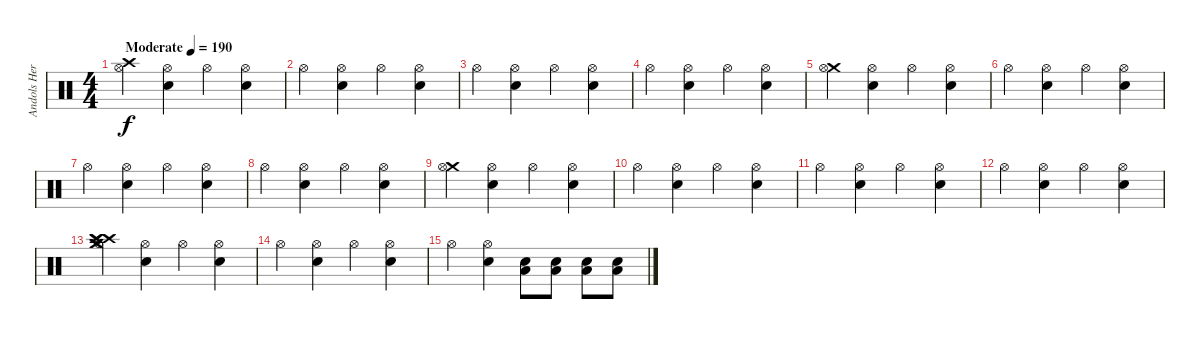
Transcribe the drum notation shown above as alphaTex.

\track ("Andols Herrick" "Andols Her") {instrument percussion}
\staff {score}
\articulation defaults
\ts (4 4)
\tempo (190 "Moderate")
\clef neutral
\ks c
("Crash high (hit)" "Hi-Hat (open)").4{dy f} ("Hi-Hat (open)" "Electric Snare (hit)").4 "Hi-Hat (open)".4 ("Hi-Hat (open)" "Electric Snare (hit)").4 |
"Hi-Hat (open)".4 ("Hi-Hat (open)" "Electric Snare (hit)").4 "Hi-Hat (open)".4 ("Hi-Hat (open)" "Electric Snare (hit)").4 |
"Hi-Hat (open)".4 ("Hi-Hat (open)" "Electric Snare (hit)").4 "Hi-Hat (open)".4 ("Hi-Hat (open)" "Electric Snare (hit)").4 |
"Hi-Hat (open)".4 ("Hi-Hat (open)" "Electric Snare (hit)").4 "Hi-Hat (open)".4 ("Hi-Hat (open)" "Electric Snare (hit)").4 |
("Crash medium (hit)" "Hi-Hat (open)").4 ("Hi-Hat (open)" "Electric Snare (hit)").4 "Hi-Hat (open)".4 ("Hi-Hat (open)" "Electric Snare (hit)").4 |
"Hi-Hat (open)".4 ("Hi-Hat (open)" "Electric Snare (hit)").4 "Hi-Hat (open)".4 ("Hi-Hat (open)" "Electric Snare (hit)").4 |
"Hi-Hat (open)".4 ("Hi-Hat (open)" "Electric Snare (hit)").4 "Hi-Hat (open)".4 ("Hi-Hat (open)" "Electric Snare (hit)").4 |
"Hi-Hat (open)".4 ("Hi-Hat (open)" "Electric Snare (hit)").4 "Hi-Hat (open)".4 ("Hi-Hat (open)" "Electric Snare (hit)").4 |
("Crash medium (hit)" "Hi-Hat (open)").4 ("Hi-Hat (open)" "Electric Snare (hit)").4 "Hi-Hat (open)".4 ("Hi-Hat (open)" "Electric Snare (hit)").4 |
"Hi-Hat (open)".4 ("Hi-Hat (open)" "Electric Snare (hit)").4 "Hi-Hat (open)".4 ("Hi-Hat (open)" "Electric Snare (hit)").4 |
"Hi-Hat (open)".4 ("Hi-Hat (open)" "Electric Snare (hit)").4 "Hi-Hat (open)".4 ("Hi-Hat (open)" "Electric Snare (hit)").4 |
"Hi-Hat (open)".4 ("Hi-Hat (open)" "Electric Snare (hit)").4 "Hi-Hat (open)".4 ("Hi-Hat (open)" "Electric Snare (hit)").4 |
("Crash medium (hit)" "Crash high (hit)" "Crash high (hit)" "Crash high (hit)" "Hi-Hat (open)" "Crash medium (hit)").4 ("Hi-Hat (open)" "Electric Snare (hit)").4 "Hi-Hat (open)".4 ("Hi-Hat (open)" "Electric Snare (hit)").4 |
"Hi-Hat (open)".4 ("Hi-Hat (open)" "Electric Snare (hit)").4 "Hi-Hat (open)".4 ("Hi-Hat (open)" "Electric Snare (hit)").4 |
"Hi-Hat (open)".4 ("Hi-Hat (open)" "Electric Snare (hit)").4 ("Low Floor Tom (hit)" "Electric Snare (hit)").8 ("Low Floor Tom (hit)" "Electric Snare (hit)").8 ("Low Floor Tom (hit)" "Electric Snare (hit)").8 ("Low Floor Tom (hit)" "Electric Snare (hit)").8
